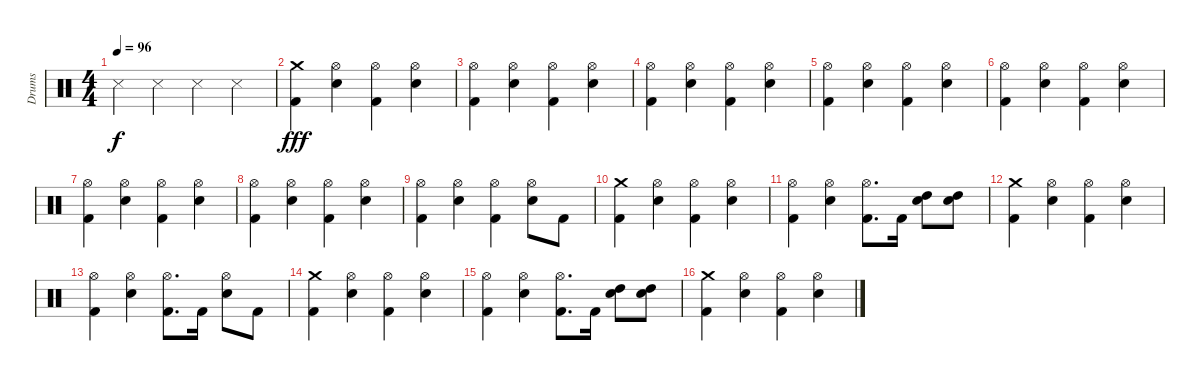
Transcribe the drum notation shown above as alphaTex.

\track ("Drums" "Drums") {instrument percussion}
\staff {score}
\articulation defaults
\ts (4 4)
\tempo 96
\clef neutral
\ks c "Snare (side stick) 3".4{dy f} "Snare (side stick) 3".4 "Snare (side stick) 3".4 "Snare (side stick) 3".4
|
("Kick (hit) 2" "Crash medium (hit)").4{dy fff} ("Hi-Hat (open)" "Snare (hit) 2").4 ("Hi-Hat (open)" "Kick (hit) 2").4 ("Hi-Hat (open)" "Snare (hit) 2").4 |
("Hi-Hat (open)" "Kick (hit) 2").4 ("Hi-Hat (open)" "Snare (hit) 2").4 ("Hi-Hat (open)" "Kick (hit) 2").4 ("Hi-Hat (open)" "Snare (hit) 2").4 |
("Hi-Hat (open)" "Kick (hit) 2").4 ("Hi-Hat (open)" "Snare (hit) 2").4 ("Hi-Hat (open)" "Kick (hit) 2").4 ("Hi-Hat (open)" "Snare (hit) 2").4 |
("Hi-Hat (open)" "Kick (hit) 2").4 ("Hi-Hat (open)" "Snare (hit) 2").4 ("Hi-Hat (open)" "Kick (hit) 2").4 ("Hi-Hat (open)" "Snare (hit) 2").4 |
("Hi-Hat (open)" "Kick (hit) 2").4 ("Hi-Hat (open)" "Snare (hit) 2").4 ("Hi-Hat (open)" "Kick (hit) 2").4 ("Hi-Hat (open)" "Snare (hit) 2").4 |
("Hi-Hat (open)" "Kick (hit) 2").4 ("Hi-Hat (open)" "Snare (hit) 2").4 ("Hi-Hat (open)" "Kick (hit) 2").4 ("Hi-Hat (open)" "Snare (hit) 2").4 |
("Hi-Hat (open)" "Kick (hit) 2").4 ("Hi-Hat (open)" "Snare (hit) 2").4 ("Hi-Hat (open)" "Kick (hit) 2").4 ("Hi-Hat (open)" "Snare (hit) 2").4 |
("Hi-Hat (open)" "Kick (hit) 2").4 ("Hi-Hat (open)" "Snare (hit) 2").4 ("Hi-Hat (open)" "Kick (hit) 2").4 ("Hi-Hat (open)" "Snare (hit) 2").8 "Kick (hit) 2".8 |
("Kick (hit) 2" "Crash medium (hit)").4 ("Hi-Hat (open)" "Snare (hit) 2").4 ("Hi-Hat (open)" "Kick (hit) 2").4 ("Hi-Hat (open)" "Snare (hit) 2").4 |
("Hi-Hat (open)" "Kick (hit) 2").4 ("Hi-Hat (open)" "Snare (hit) 2").4 ("Hi-Hat (open)" "Kick (hit) 2").8{d} "Kick (hit) 2".16 ("Snare (hit) 2" "High Tom (hit)").8 ("Snare (hit) 2" "High Tom (hit)").8 |
("Kick (hit) 2" "Crash medium (hit)").4 ("Hi-Hat (open)" "Snare (hit) 2").4 ("Hi-Hat (open)" "Kick (hit) 2").4 ("Hi-Hat (open)" "Snare (hit) 2").4 |
("Hi-Hat (open)" "Kick (hit) 2").4 ("Hi-Hat (open)" "Snare (hit) 2").4 ("Hi-Hat (open)" "Kick (hit) 2").8{d} "Kick (hit) 2".16 ("Hi-Hat (open)" "Snare (hit) 2").8 "Kick (hit) 2".8 |
("Kick (hit) 2" "Crash medium (hit)").4 ("Hi-Hat (open)" "Snare (hit) 2").4 ("Hi-Hat (open)" "Kick (hit) 2").4 ("Hi-Hat (open)" "Snare (hit) 2").4 |
("Hi-Hat (open)" "Kick (hit) 2").4 ("Hi-Hat (open)" "Snare (hit) 2").4 ("Hi-Hat (open)" "Kick (hit) 2").8{d} "Kick (hit) 2".16 ("Snare (hit) 2" "High Tom (hit)").8 ("Snare (hit) 2" "High Tom (hit)").8 |
("Kick (hit) 2" "Crash medium (hit)").4 ("Hi-Hat (open)" "Snare (hit) 2").4 ("Hi-Hat (open)" "Kick (hit) 2").4 ("Hi-Hat (open)" "Snare (hit) 2").4
